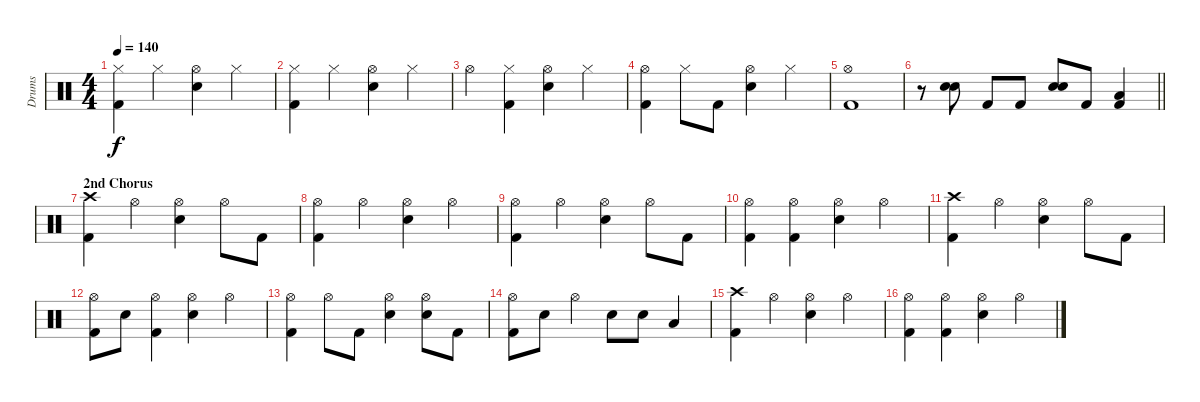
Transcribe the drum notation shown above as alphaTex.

\track ("Drums" "Drums") {instrument percussion}
\staff {score}
\articulation defaults
\ts (4 4)
\tempo 140
\clef neutral
\ks c
("Hi-Hat (closed)" "Kick (hit) 2").4{dy f} "Hi-Hat (closed)".4 ("Snare (hit) 2" "Hi-Hat (open)").4 "Hi-Hat (closed)".4 |
("Hi-Hat (closed)" "Kick (hit) 2").4 "Hi-Hat (closed)".4 ("Snare (hit) 2" "Hi-Hat (open)").4 "Hi-Hat (closed)".4 |
"Hi-Hat (open)".4 ("Kick (hit) 2" "Hi-Hat (closed)").4 ("Snare (hit) 2" "Hi-Hat (open)").4 "Hi-Hat (closed)".4 |
("Hi-Hat (open)" "Kick (hit) 2").4 "Hi-Hat (closed)".8 "Kick (hit) 2".8 ("Snare (hit) 2" "Hi-Hat (open)").4 "Hi-Hat (closed)".4 |
("Hi-Hat (open)" "Kick (hit) 2").1 |
\barLineRight lightlight
r.8{volume 15} ("Snare (hit) 2" "Snare (hit) 2").8 "Kick (hit) 2".8 "Kick (hit) 2".8 ("Snare (hit) 2" "Snare (hit) 2").8 "Kick (hit) 2".8 ("Low Floor Tom (hit)" "Kick (hit) 2").4 |
\section ("" "2nd Chorus")
("Crash high (hit)" "Kick (hit) 2").4 "Hi-Hat (open)".4 ("Snare (hit) 2" "Hi-Hat (open)").4 "Hi-Hat (open)".8 "Kick (hit) 2".8 |
("Kick (hit) 2" "Hi-Hat (open)").4 "Hi-Hat (open)".4 ("Snare (hit) 2" "Hi-Hat (open)").4 "Hi-Hat (open)".4 |
("Hi-Hat (open)" "Kick (hit) 2").4 "Hi-Hat (open)".4 ("Snare (hit) 2" "Hi-Hat (open)").4 "Hi-Hat (open)".8 "Kick (hit) 2".8 |
("Kick (hit) 2" "Hi-Hat (open)").4 ("Kick (hit) 2" "Hi-Hat (open)").4 ("Snare (hit) 2" "Hi-Hat (open)").4 "Hi-Hat (open)".4 |
("Crash high (hit)" "Kick (hit) 2").4 "Hi-Hat (open)".4 ("Snare (hit) 2" "Hi-Hat (open)").4 "Hi-Hat (open)".8 "Kick (hit) 2".8 |
("Kick (hit) 2" "Hi-Hat (open)").8 "Snare (hit) 2".8 ("Kick (hit) 2" "Hi-Hat (open)").4 ("Snare (hit) 2" "Hi-Hat (open)").4 "Hi-Hat (open)".4 |
("Kick (hit) 2" "Hi-Hat (open)").4 "Hi-Hat (open)".8 "Kick (hit) 2".8 ("Snare (hit) 2" "Hi-Hat (open)").4 ("Snare (hit) 2" "Hi-Hat (open)").8 "Kick (hit) 2".8 |
("Kick (hit) 2" "Hi-Hat (open)").8 "Snare (hit) 2".8 "Hi-Hat (open)".4 "Snare (hit) 2".8 "Snare (hit) 2".8 "Low Tom (hit)".4 |
("Crash high (hit)" "Kick (hit) 2").4 "Hi-Hat (open)".4 ("Snare (hit) 2" "Hi-Hat (open)").4 "Hi-Hat (open)".4 |
("Kick (hit) 2" "Hi-Hat (open)").4 ("Kick (hit) 2" "Hi-Hat (open)").4 ("Snare (hit) 2" "Hi-Hat (open)").4 "Hi-Hat (open)".4
